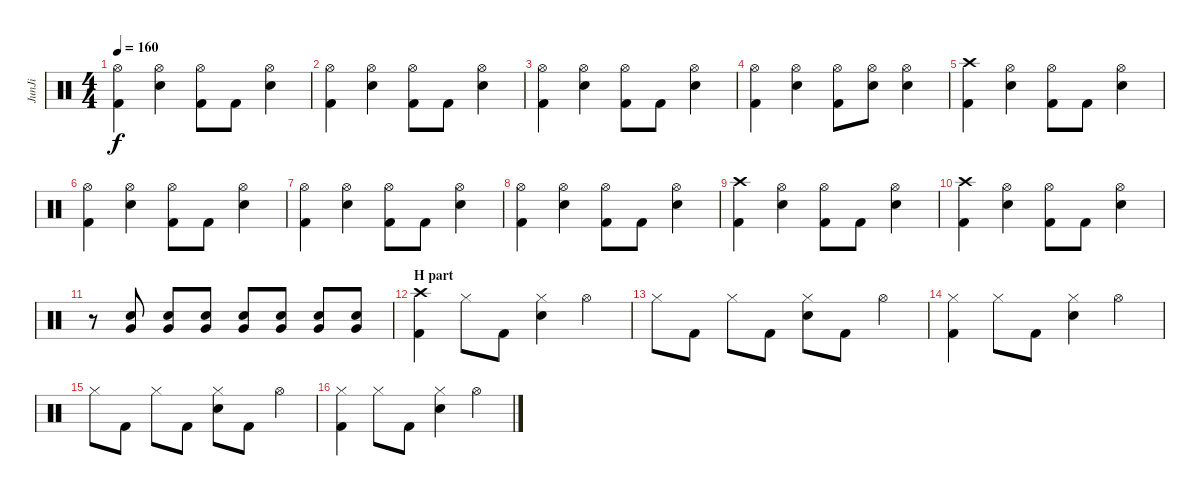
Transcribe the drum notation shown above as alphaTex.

\track ("JunJi" "JunJi") {instrument percussion}
\staff {score}
\articulation defaults
\ts (4 4)
\tempo 160
\clef neutral
\ks c
("Hi-Hat (open)" "Kick (hit) 2").4{dy f} ("Hi-Hat (open)" "Snare (hit) 2").4 ("Hi-Hat (open)" "Kick (hit) 2").8 "Kick (hit) 2".8 ("Hi-Hat (open)" "Snare (hit) 2").4 |
("Hi-Hat (open)" "Kick (hit) 2").4 ("Hi-Hat (open)" "Snare (hit) 2").4 ("Hi-Hat (open)" "Kick (hit) 2").8 "Kick (hit) 2".8 ("Hi-Hat (open)" "Snare (hit) 2").4 |
("Hi-Hat (open)" "Kick (hit) 2").4 ("Hi-Hat (open)" "Snare (hit) 2").4 ("Hi-Hat (open)" "Kick (hit) 2").8 "Kick (hit) 2".8 ("Hi-Hat (open)" "Snare (hit) 2").4 |
("Hi-Hat (open)" "Kick (hit) 2").4 ("Hi-Hat (open)" "Snare (hit) 2").4 ("Hi-Hat (open)" "Kick (hit) 2").8 ("Hi-Hat (open)" "Snare (hit) 2").8 ("Hi-Hat (open)" "Snare (hit) 2").4 |
("Crash high (hit)" "Kick (hit) 2").4 ("Hi-Hat (open)" "Snare (hit) 2").4 ("Hi-Hat (open)" "Kick (hit) 2").8 "Kick (hit) 2".8 ("Hi-Hat (open)" "Snare (hit) 2").4 |
("Hi-Hat (open)" "Kick (hit) 2").4 ("Hi-Hat (open)" "Snare (hit) 2").4 ("Hi-Hat (open)" "Kick (hit) 2").8 "Kick (hit) 2".8 ("Hi-Hat (open)" "Snare (hit) 2").4 |
("Hi-Hat (open)" "Kick (hit) 2").4 ("Hi-Hat (open)" "Snare (hit) 2").4 ("Hi-Hat (open)" "Kick (hit) 2").8 "Kick (hit) 2".8 ("Hi-Hat (open)" "Snare (hit) 2").4 |
("Hi-Hat (open)" "Kick (hit) 2").4 ("Hi-Hat (open)" "Snare (hit) 2").4 ("Hi-Hat (open)" "Kick (hit) 2").8 "Kick (hit) 2".8 ("Hi-Hat (open)" "Snare (hit) 2").4 |
("Crash high (hit)" "Kick (hit) 2").4 ("Hi-Hat (open)" "Snare (hit) 2").4 ("Hi-Hat (open)" "Kick (hit) 2").8 "Kick (hit) 2".8 ("Hi-Hat (open)" "Snare (hit) 2").4 |
("Crash high (hit)" "Kick (hit) 2").4 ("Hi-Hat (open)" "Snare (hit) 2").4 ("Hi-Hat (open)" "Kick (hit) 2").8 "Kick (hit) 2".8 ("Hi-Hat (open)" "Snare (hit) 2").4 |
r.8 ("Snare (hit) 2" "Very Low Tom (hit)").8 ("Snare (hit) 2" "Very Low Tom (hit)").8 ("Snare (hit) 2" "Very Low Tom (hit)").8 ("Snare (hit) 2" "Very Low Tom (hit)").8 ("Snare (hit) 2" "Very Low Tom (hit)").8 ("Snare (hit) 2" "Very Low Tom (hit)").8 ("Snare (hit) 2" "Very Low Tom (hit)").8 |
\section ("" "H part")
("Crash high (hit)" "Kick (hit) 2").4 "Hi-Hat (closed)".8 "Kick (hit) 2".8 ("Hi-Hat (closed)" "Snare (hit) 2").4 "Hi-Hat (open)".4 |
"Hi-Hat (closed)".8 "Kick (hit) 2".8 "Hi-Hat (closed)".8 "Kick (hit) 2".8 ("Hi-Hat (closed)" "Snare (hit) 2").8 "Kick (hit) 2".8 "Hi-Hat (open)".4 |
("Hi-Hat (closed)" "Kick (hit) 2").4 "Hi-Hat (closed)".8 "Kick (hit) 2".8 ("Hi-Hat (closed)" "Snare (hit) 2").4 "Hi-Hat (open)".4 |
"Hi-Hat (closed)".8 "Kick (hit) 2".8 "Hi-Hat (closed)".8 "Kick (hit) 2".8 ("Hi-Hat (closed)" "Snare (hit) 2").8 "Kick (hit) 2".8 "Hi-Hat (open)".4 |
("Hi-Hat (closed)" "Kick (hit) 2").4 "Hi-Hat (closed)".8 "Kick (hit) 2".8 ("Hi-Hat (closed)" "Snare (hit) 2").4 "Hi-Hat (open)".4
